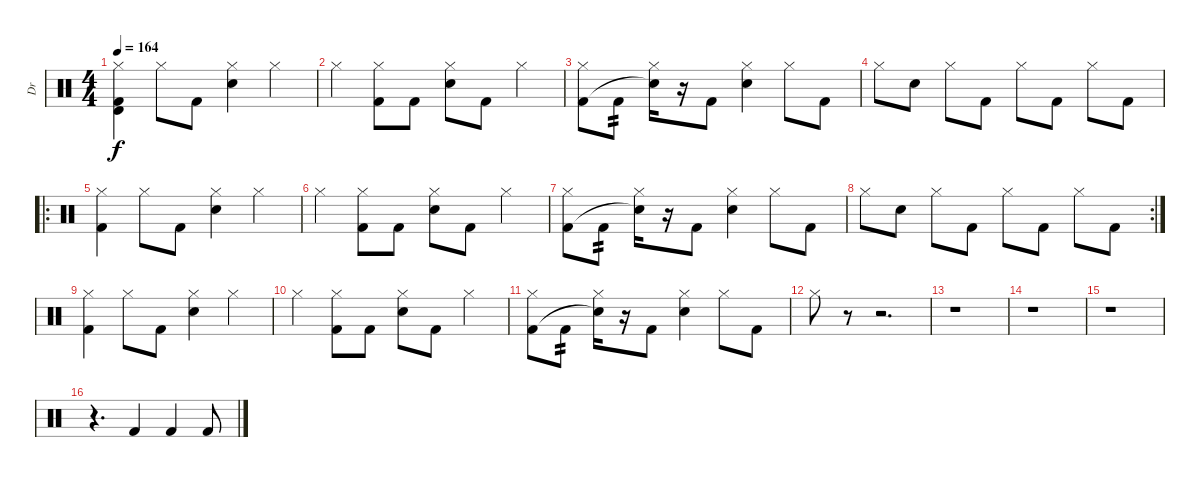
\track ("Dr" "Dr") {instrument percussion}
\staff {score}
\articulation defaults
\ts (4 4)
\tempo 164
\clef neutral
\ks c
("Hi-Hat (closed)" "Timbale high (hit)" "Kick (hit) 2").4{dy f} "Hi-Hat (closed)".8 "Kick (hit) 2".8 ("Hi-Hat (closed)" "Electric Snare (hit)").4 "Hi-Hat (closed)".4 |
"Hi-Hat (closed)".4 ("Hi-Hat (closed)" "Kick (hit) 2").8 "Kick (hit) 2".8 ("Hi-Hat (closed)" "Electric Snare (hit)").8 "Kick (hit) 2".8 "Hi-Hat (closed)".4 |
("Hi-Hat (closed)" "Kick (hit) 2").8 "Kick (hit) 2".8{tp 2} ("Hi-Hat (closed)" "Snare (hit)"{t}).16 r.16 "Kick (hit) 2".8 ("Hi-Hat (closed)" "Electric Snare (hit)").4 "Hi-Hat (closed)".8 "Kick (hit) 2".8 |
"Hi-Hat (closed)".8 "Electric Snare (hit)".8 "Hi-Hat (closed)".8 "Kick (hit) 2".8 "Hi-Hat (closed)".8 "Kick (hit) 2".8 "Hi-Hat (closed)".8 "Kick (hit) 2".8 |
\ro
("Hi-Hat (closed)" "Kick (hit) 2").4 "Hi-Hat (closed)".8 "Kick (hit) 2".8 ("Hi-Hat (closed)" "Electric Snare (hit)").4 "Hi-Hat (closed)".4 |
"Hi-Hat (closed)".4 ("Hi-Hat (closed)" "Kick (hit) 2").8 "Kick (hit) 2".8 ("Hi-Hat (closed)" "Electric Snare (hit)").8 "Kick (hit) 2".8 "Hi-Hat (closed)".4 |
("Hi-Hat (closed)" "Kick (hit) 2").8 "Kick (hit) 2".8{tp 2} ("Hi-Hat (closed)" "Snare (hit)"{t}).16 r.16 "Kick (hit) 2".8 ("Hi-Hat (closed)" "Electric Snare (hit)").4 "Hi-Hat (closed)".8 "Kick (hit) 2".8 |
\rc 2 "Hi-Hat (closed)".8 "Electric Snare (hit)".8 "Hi-Hat (closed)".8 "Kick (hit) 2".8 "Hi-Hat (closed)".8 "Kick (hit) 2".8 "Hi-Hat (closed)".8 "Kick (hit) 2".8
|
("Hi-Hat (closed)" "Kick (hit) 2").4 "Hi-Hat (closed)".8 "Kick (hit) 2".8 ("Hi-Hat (closed)" "Electric Snare (hit)").4 "Hi-Hat (closed)".4 |
"Hi-Hat (closed)".4 ("Hi-Hat (closed)" "Kick (hit) 2").8 "Kick (hit) 2".8 ("Hi-Hat (closed)" "Electric Snare (hit)").8 "Kick (hit) 2".8 "Hi-Hat (closed)".4 |
("Hi-Hat (closed)" "Kick (hit) 2").8 "Kick (hit) 2".8{tp 2} ("Hi-Hat (closed)" "Snare (hit)"{t}).16 r.16 "Kick (hit) 2".8 ("Hi-Hat (closed)" "Electric Snare (hit)").4 "Hi-Hat (closed)".8 "Kick (hit) 2".8 |
"Hi-Hat (closed)".8 r.8 r.2{d} |
r.1 |
r.1 |
r.1 |
r.4{d} "Kick (hit) 2".4 "Kick (hit) 2".4 "Kick (hit) 2".8
